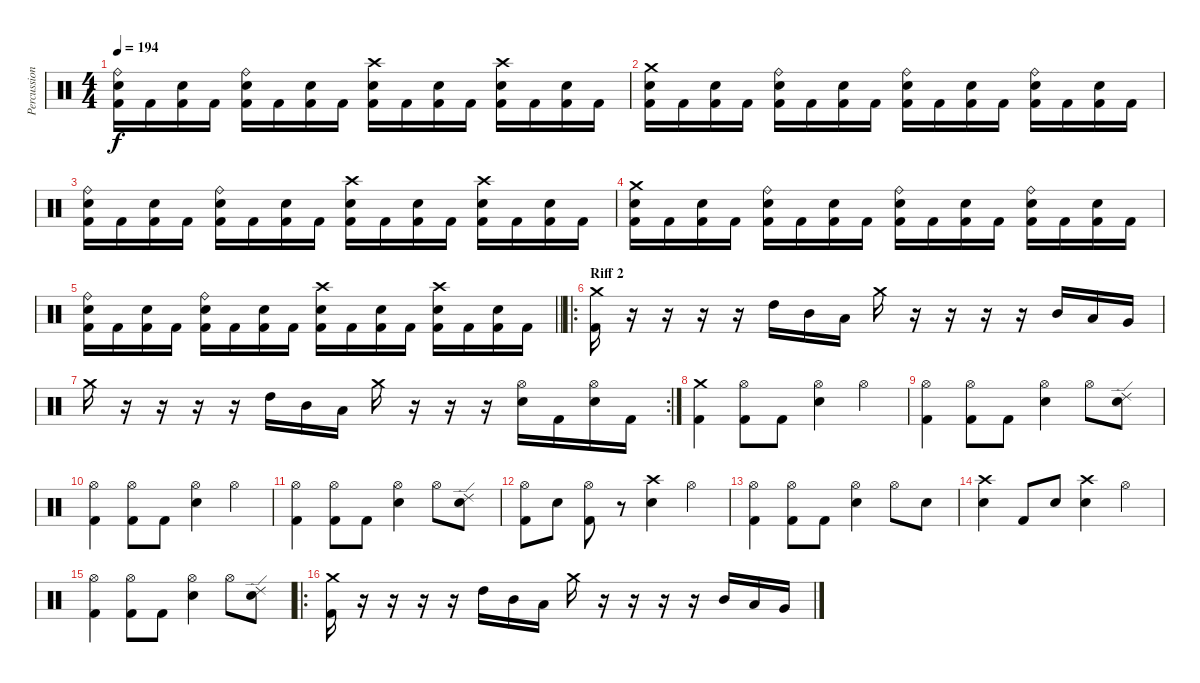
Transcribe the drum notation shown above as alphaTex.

\track ("Percussions" "Percussion") {instrument percussion}
\staff {score}
\articulation defaults
\ts (4 4)
\tempo 194
\clef neutral
\ks c
("Ride (bell)" "Electric Snare (hit)" "Kick (hit) 2").16{dy f} "Kick (hit) 2".16 ("Electric Snare (hit)" "Kick (hit) 2").16 "Kick (hit) 2".16 ("Ride (bell)" "Electric Snare (hit)" "Kick (hit) 2").16 "Kick (hit) 2".16 ("Electric Snare (hit)" "Kick (hit) 2").16 "Kick (hit) 2".16 ("Crash high (hit)" "Electric Snare (hit)" "Kick (hit) 2").16 "Kick (hit) 2".16 ("Electric Snare (hit)" "Kick (hit) 2").16 "Kick (hit) 2".16 ("Crash high (hit)" "Electric Snare (hit)" "Kick (hit) 2").16 "Kick (hit) 2".16 ("Electric Snare (hit)" "Kick (hit) 2").16 "Kick (hit) 2".16 |
("Crash medium (hit)" "Electric Snare (hit)" "Kick (hit) 2").16 "Kick (hit) 2".16 ("Electric Snare (hit)" "Kick (hit) 2").16 "Kick (hit) 2".16 ("Ride (bell)" "Electric Snare (hit)" "Kick (hit) 2").16 "Kick (hit) 2".16 ("Electric Snare (hit)" "Kick (hit) 2").16 "Kick (hit) 2".16 ("Ride (bell)" "Electric Snare (hit)" "Kick (hit) 2").16 "Kick (hit) 2".16 ("Electric Snare (hit)" "Kick (hit) 2").16 "Kick (hit) 2".16 ("Ride (bell)" "Electric Snare (hit)" "Kick (hit) 2").16 "Kick (hit) 2".16 ("Electric Snare (hit)" "Kick (hit) 2").16 "Kick (hit) 2".16 |
("Ride (bell)" "Electric Snare (hit)" "Kick (hit) 2").16 "Kick (hit) 2".16 ("Electric Snare (hit)" "Kick (hit) 2").16 "Kick (hit) 2".16 ("Ride (bell)" "Electric Snare (hit)" "Kick (hit) 2").16 "Kick (hit) 2".16 ("Electric Snare (hit)" "Kick (hit) 2").16 "Kick (hit) 2".16 ("Crash high (hit)" "Electric Snare (hit)" "Kick (hit) 2").16 "Kick (hit) 2".16 ("Electric Snare (hit)" "Kick (hit) 2").16 "Kick (hit) 2".16 ("Crash high (hit)" "Electric Snare (hit)" "Kick (hit) 2").16 "Kick (hit) 2".16 ("Electric Snare (hit)" "Kick (hit) 2").16 "Kick (hit) 2".16 |
("Crash medium (hit)" "Electric Snare (hit)" "Kick (hit) 2").16 "Kick (hit) 2".16 ("Electric Snare (hit)" "Kick (hit) 2").16 "Kick (hit) 2".16 ("Ride (bell)" "Electric Snare (hit)" "Kick (hit) 2").16 "Kick (hit) 2".16 ("Electric Snare (hit)" "Kick (hit) 2").16 "Kick (hit) 2".16 ("Ride (bell)" "Electric Snare (hit)" "Kick (hit) 2").16 "Kick (hit) 2".16 ("Electric Snare (hit)" "Kick (hit) 2").16 "Kick (hit) 2".16 ("Ride (bell)" "Electric Snare (hit)" "Kick (hit) 2").16 "Kick (hit) 2".16 ("Electric Snare (hit)" "Kick (hit) 2").16 "Kick (hit) 2".16 |
\barLineRight lightlight
("Ride (bell)" "Electric Snare (hit)" "Kick (hit) 2").16 "Kick (hit) 2".16 ("Electric Snare (hit)" "Kick (hit) 2").16 "Kick (hit) 2".16 ("Ride (bell)" "Electric Snare (hit)" "Kick (hit) 2").16 "Kick (hit) 2".16 ("Electric Snare (hit)" "Kick (hit) 2").16 "Kick (hit) 2".16 ("Crash high (hit)" "Electric Snare (hit)" "Kick (hit) 2").16 "Kick (hit) 2".16 ("Electric Snare (hit)" "Kick (hit) 2").16 "Kick (hit) 2".16 ("Crash high (hit)" "Electric Snare (hit)" "Kick (hit) 2").16 "Kick (hit) 2".16 ("Electric Snare (hit)" "Kick (hit) 2").16 "Kick (hit) 2".16 |
\ro
\section ("" "Riff 2")
("Crash medium (hit)" "Kick (hit) 2").16 r.16 r.16 r.16 r.16 "High Tom (hit)".16 "Mid Tom (hit)".16 "Low Tom (hit)".16 "Crash medium (hit)".16 r.16 r.16 r.16 r.16 "Mid Tom (hit)".16 "Low Tom (hit)".16 "Very Low Tom (hit)".16 |
\rc 2 "Crash medium (hit)".16
r.16 r.16 r.16 r.16 "High Tom (hit)".16 "Mid Tom (hit)".16 "Low Tom (hit)".16 "Crash medium (hit)".16 r.16 r.16 r.16 ("Hi-Hat (open)" "Electric Snare (hit)").16 "Kick (hit) 2".16 ("Hi-Hat (open)" "Electric Snare (hit)").16 "Kick (hit) 2".16 |
("Crash medium (hit)" "Kick (hit) 2").4 ("Hi-Hat (open)" "Kick (hit) 2").8 "Kick (hit) 2".8 ("Hi-Hat (open)" "Electric Snare (hit)").4 "Hi-Hat (open)".4 |
("Hi-Hat (open)" "Kick (hit) 2").4 ("Hi-Hat (open)" "Kick (hit) 2").8 "Kick (hit) 2".8 ("Hi-Hat (open)" "Electric Snare (hit)").4 "Hi-Hat (open)".8 ("Ride (edge) 2" "Electric Snare (hit)").8 |
("Hi-Hat (open)" "Kick (hit) 2").4 ("Hi-Hat (open)" "Kick (hit) 2").8 "Kick (hit) 2".8 ("Hi-Hat (open)" "Electric Snare (hit)").4 "Hi-Hat (open)".4 |
("Hi-Hat (open)" "Kick (hit) 2").4 ("Hi-Hat (open)" "Kick (hit) 2").8 "Kick (hit) 2".8 ("Hi-Hat (open)" "Electric Snare (hit)").4 "Hi-Hat (open)".8 ("Ride (edge) 2" "Electric Snare (hit)").8 |
("Hi-Hat (open)" "Kick (hit) 2").8 "Electric Snare (hit)".8 ("Hi-Hat (open)" "Kick (hit) 2").8 r.8 ("Crash high (hit)" "Electric Snare (hit)").4 "Hi-Hat (open)".4 |
("Hi-Hat (open)" "Kick (hit) 2").4 ("Hi-Hat (open)" "Kick (hit) 2").8 "Kick (hit) 2".8 ("Hi-Hat (open)" "Electric Snare (hit)").4 "Hi-Hat (open)".8 "Electric Snare (hit)".8 |
("Crash high (hit)" "Electric Snare (hit)").4 "Kick (hit) 2".8 "Electric Snare (hit)".8 ("Crash high (hit)" "Electric Snare (hit)").4 "Hi-Hat (open)".4 |
("Hi-Hat (open)" "Kick (hit) 2").4 ("Hi-Hat (open)" "Kick (hit) 2").8 "Kick (hit) 2".8 ("Hi-Hat (open)" "Electric Snare (hit)").4 "Hi-Hat (open)".8 ("Ride (edge) 2" "Electric Snare (hit)").8 |
\ro
("Crash medium (hit)" "Kick (hit) 2").16 r.16 r.16 r.16 r.16 "High Tom (hit)".16 "Mid Tom (hit)".16 "Low Tom (hit)".16 "Crash medium (hit)".16 r.16 r.16 r.16 r.16 "Mid Tom (hit)".16 "Low Tom (hit)".16 "Very Low Tom (hit)".16
